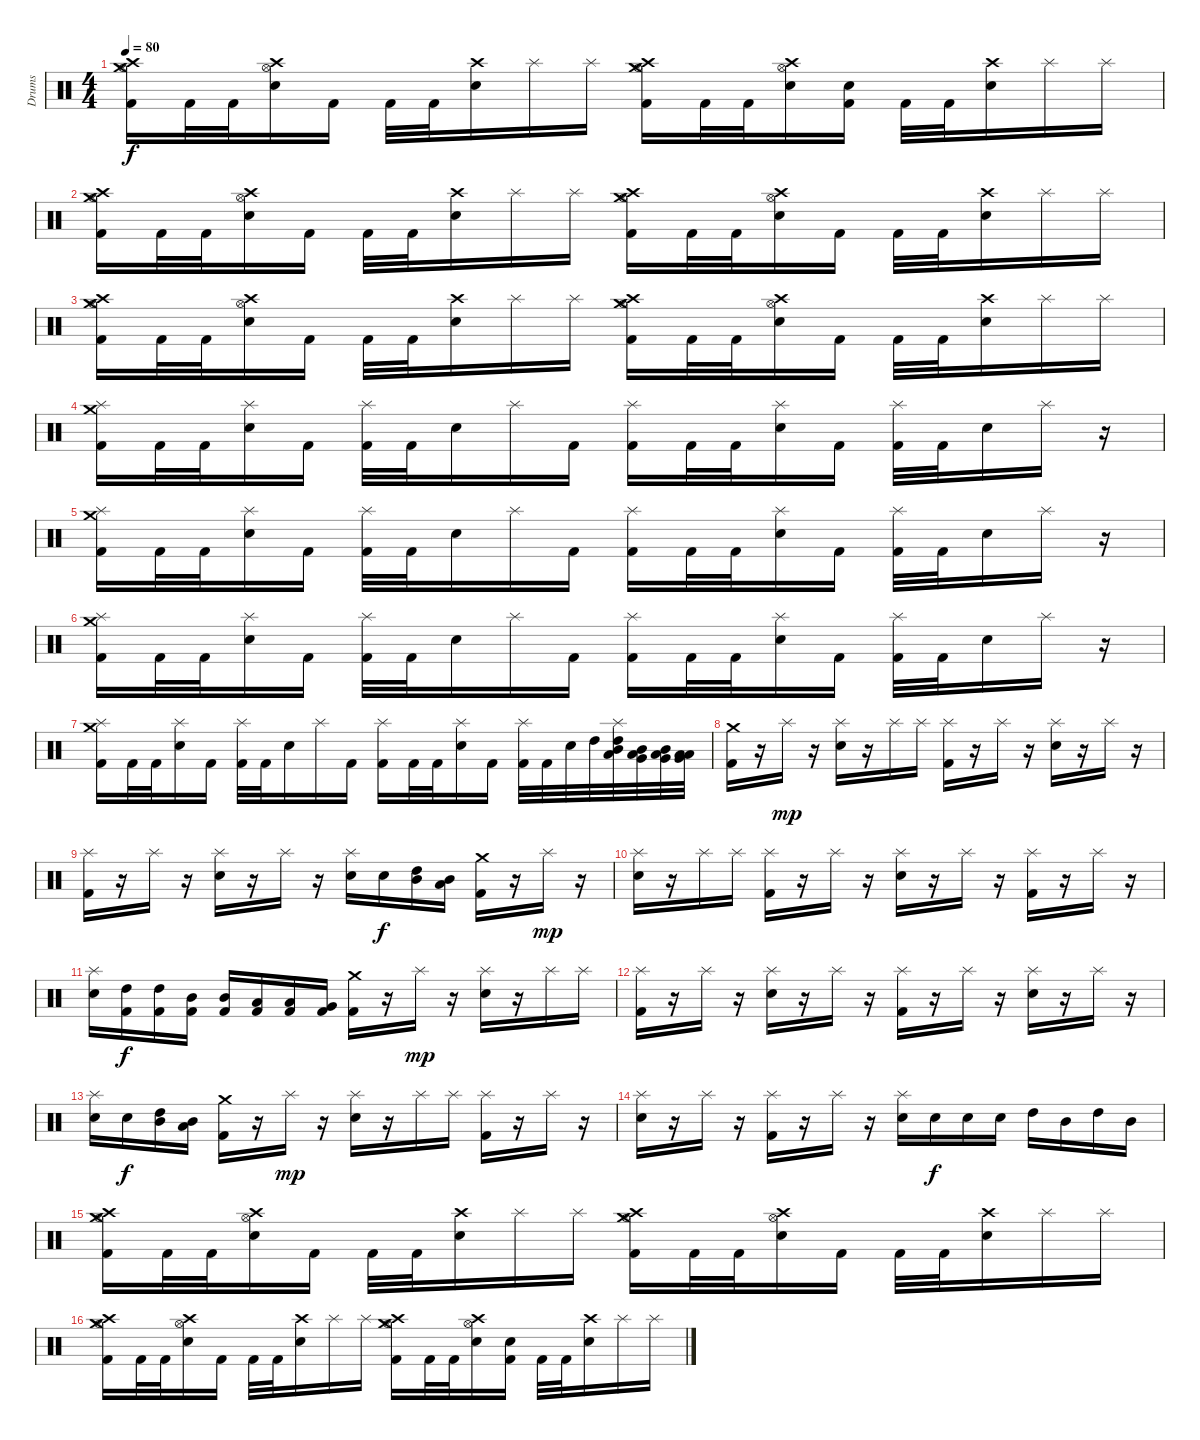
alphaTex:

\track ("Drums" "Drums") {instrument percussion}
\staff {score}
\articulation defaults
\ts (4 4)
\tempo 80
\clef neutral
\ks c
("Crash high (hit)" "Crash medium (hit)" "Hi-Hat (open)" "Kick (hit) 2").16{dy f} "Kick (hit) 2".32 "Kick (hit) 2".32 ("Crash high (hit)" "Electric Snare (hit)" "Hi-Hat (open)").16 "Kick (hit) 2".16 "Kick (hit) 2".32 "Kick (hit) 2".32 ("Crash high (hit)" "Electric Snare (hit)").16 "Splash (hit)".16 "Splash (hit)".16 ("Kick (hit) 2" "Crash high (hit)" "Crash medium (hit)" "Hi-Hat (open)").16 "Kick (hit) 2".32 "Kick (hit) 2".32 ("Hi-Hat (open)" "Crash high (hit)" "Electric Snare (hit)").16 ("Electric Snare (hit)" "Kick (hit) 2").16 "Kick (hit) 2".32 "Kick (hit) 2".32 ("Crash high (hit)" "Electric Snare (hit)").16 "Splash (hit)".16 "Splash (hit)".16 |
("Kick (hit) 2" "Hi-Hat (open)" "Crash high (hit)" "Crash medium (hit)").16 "Kick (hit) 2".32 "Kick (hit) 2".32 ("Crash high (hit)" "Hi-Hat (open)" "Electric Snare (hit)").16 "Kick (hit) 2".16 "Kick (hit) 2".32 "Kick (hit) 2".32 ("Electric Snare (hit)" "Crash high (hit)").16 "Splash (hit)".16 "Splash (hit)".16 ("Crash high (hit)" "Crash medium (hit)" "Hi-Hat (open)" "Kick (hit) 2").16 "Kick (hit) 2".32 "Kick (hit) 2".32 ("Electric Snare (hit)" "Crash high (hit)" "Hi-Hat (open)").16 "Kick (hit) 2".16 "Kick (hit) 2".32 "Kick (hit) 2".32 ("Electric Snare (hit)" "Crash high (hit)").16 "Splash (hit)".16 "Splash (hit)".16 |
("Hi-Hat (open)" "Crash medium (hit)" "Crash high (hit)" "Kick (hit) 2").16 "Kick (hit) 2".32 "Kick (hit) 2".32 ("Hi-Hat (open)" "Electric Snare (hit)" "Crash high (hit)").16 "Kick (hit) 2".16 "Kick (hit) 2".32 "Kick (hit) 2".32 ("Crash high (hit)" "Electric Snare (hit)").16 "Splash (hit)".16 "Splash (hit)".16 ("Crash medium (hit)" "Kick (hit) 2" "Hi-Hat (open)" "Crash high (hit)").16 "Kick (hit) 2".32 "Kick (hit) 2".32 ("Hi-Hat (open)" "Electric Snare (hit)" "Crash high (hit)").16 "Kick (hit) 2".16 "Kick (hit) 2".32 "Kick (hit) 2".32 ("Crash high (hit)" "Electric Snare (hit)").16 "Splash (hit)".16 "Splash (hit)".16 |
("Crash medium (hit)" "Splash (hit)" "Kick (hit) 2").16 "Kick (hit) 2".32 "Kick (hit) 2".32 ("Splash (hit)" "Electric Snare (hit)").16 "Kick (hit) 2".16 ("Splash (hit)" "Kick (hit) 2").32 "Kick (hit) 2".32 "Electric Snare (hit)".16 "Splash (hit)".16 "Kick (hit) 2".16 ("Splash (hit)" "Kick (hit) 2").16 "Kick (hit) 2".32 "Kick (hit) 2".32 ("Splash (hit)" "Electric Snare (hit)").16 "Kick (hit) 2".16 ("Splash (hit)" "Kick (hit) 2").32 "Kick (hit) 2".32 "Electric Snare (hit)".16 "Splash (hit)".16 r.16 |
("Crash medium (hit)" "Splash (hit)" "Kick (hit) 2").16 "Kick (hit) 2".32 "Kick (hit) 2".32 ("Splash (hit)" "Electric Snare (hit)").16 "Kick (hit) 2".16 ("Splash (hit)" "Kick (hit) 2").32 "Kick (hit) 2".32 "Electric Snare (hit)".16 "Splash (hit)".16 "Kick (hit) 2".16 ("Splash (hit)" "Kick (hit) 2").16 "Kick (hit) 2".32 "Kick (hit) 2".32 ("Splash (hit)" "Electric Snare (hit)").16 "Kick (hit) 2".16 ("Splash (hit)" "Kick (hit) 2").32 "Kick (hit) 2".32 "Electric Snare (hit)".16 "Splash (hit)".16 r.16 |
("Crash medium (hit)" "Splash (hit)" "Kick (hit) 2").16 "Kick (hit) 2".32 "Kick (hit) 2".32 ("Splash (hit)" "Electric Snare (hit)").16 "Kick (hit) 2".16 ("Splash (hit)" "Kick (hit) 2").32 "Kick (hit) 2".32 "Electric Snare (hit)".16 "Splash (hit)".16 "Kick (hit) 2".16 ("Splash (hit)" "Kick (hit) 2").16 "Kick (hit) 2".32 "Kick (hit) 2".32 ("Splash (hit)" "Electric Snare (hit)").16 "Kick (hit) 2".16 ("Splash (hit)" "Kick (hit) 2").32 "Kick (hit) 2".32 "Electric Snare (hit)".16 "Splash (hit)".16 r.16 |
("Crash medium (hit)" "Splash (hit)" "Kick (hit) 2").16 "Kick (hit) 2".32 "Kick (hit) 2".32 ("Splash (hit)" "Electric Snare (hit)").16 "Kick (hit) 2".16 ("Splash (hit)" "Kick (hit) 2").32 "Kick (hit) 2".32 "Electric Snare (hit)".16 "Splash (hit)".16 "Kick (hit) 2".16 ("Splash (hit)" "Kick (hit) 2").16 "Kick (hit) 2".32 "Kick (hit) 2".32 ("Splash (hit)" "Electric Snare (hit)").16 "Kick (hit) 2".16 ("Splash (hit)" "Kick (hit) 2").32 "Kick (hit) 2".32 "Electric Snare (hit)".32 "High Tom (hit)".32 ("Low Tom (hit)" "Mid Tom (hit)" "High Tom (hit)" "Splash (hit)").32 ("Very Low Tom (hit)" "Low Tom (hit)" "Mid Tom (hit)").32 ("Very Low Tom (hit)" "Low Tom (hit)" "Mid Tom (hit)").32 ("Very Low Tom (hit)" "Low Floor Tom (hit)" "Low Tom (hit)").32 |
("Crash medium (hit)" "Kick (hit) 2").16 r.16 "Splash (hit)".16{dy mp} r.16 ("Electric Snare (hit)" "Splash (hit)").16 r.16 "Splash (hit)".16 "Splash (hit)".16 ("Splash (hit)" "Kick (hit) 2").16 r.16 "Splash (hit)".16 r.16 ("Electric Snare (hit)" "Splash (hit)").16 r.16 "Splash (hit)".16 r.16 |
("Kick (hit) 2" "Splash (hit)").16 r.16 "Splash (hit)".16 r.16 ("Splash (hit)" "Electric Snare (hit)").16 r.16 "Splash (hit)".16 r.16 ("Electric Snare (hit)" "Splash (hit)").16 "Electric Snare (hit)".16{dy f} ("High Tom (hit)" "Mid Tom (hit)").16 ("Low Tom (hit)" "Mid Tom (hit)").16 ("Kick (hit) 2" "Crash medium (hit)").16 r.16 "Splash (hit)".16{dy mp} r.16 |
("Splash (hit)" "Electric Snare (hit)").16 r.16 "Splash (hit)".16 "Splash (hit)".16 ("Splash (hit)" "Kick (hit) 2").16 r.16 "Splash (hit)".16 r.16 ("Electric Snare (hit)" "Splash (hit)").16 r.16 "Splash (hit)".16 r.16 ("Splash (hit)" "Kick (hit) 2").16 r.16 "Splash (hit)".16 r.16 |
("Electric Snare (hit)" "Splash (hit)").16 ("High Tom (hit)" "Kick (hit) 2").16{dy f} ("Kick (hit) 2" "High Tom (hit)").16 ("Kick (hit) 2" "Mid Tom (hit)").16 ("Kick (hit) 2" "Mid Tom (hit)").16 ("Kick (hit) 2" "Low Tom (hit)").16 ("Kick (hit) 2" "Low Tom (hit)").16 ("Kick (hit) 2" "Very Low Tom (hit)").16 ("Kick (hit) 2" "Crash medium (hit)").16 r.16 "Splash (hit)".16{dy mp} r.16 ("Electric Snare (hit)" "Splash (hit)").16 r.16 "Splash (hit)".16 "Splash (hit)".16 |
("Kick (hit) 2" "Splash (hit)").16 r.16 "Splash (hit)".16 r.16 ("Electric Snare (hit)" "Splash (hit)").16 r.16 "Splash (hit)".16 r.16 ("Kick (hit) 2" "Splash (hit)").16 r.16 "Splash (hit)".16 r.16 ("Electric Snare (hit)" "Splash (hit)").16 r.16 "Splash (hit)".16 r.16 |
("Splash (hit)" "Electric Snare (hit)").16 "Electric Snare (hit)".16{dy f} ("Mid Tom (hit)" "High Tom (hit)").16 ("Mid Tom (hit)" "Low Tom (hit)").16 ("Kick (hit) 2" "Crash medium (hit)").16 r.16 "Splash (hit)".16{dy mp} r.16 ("Splash (hit)" "Electric Snare (hit)").16 r.16 "Splash (hit)".16 "Splash (hit)".16 ("Splash (hit)" "Kick (hit) 2").16 r.16 "Splash (hit)".16 r.16 |
("Splash (hit)" "Electric Snare (hit)").16 r.16 "Splash (hit)".16 r.16 ("Kick (hit) 2" "Splash (hit)").16 r.16 "Splash (hit)".16 r.16 ("Splash (hit)" "Electric Snare (hit)").16 "Electric Snare (hit)".16{dy f} "Electric Snare (hit)".16 "Electric Snare (hit)".16 "High Tom (hit)".16 "Mid Tom (hit)".16 "High Tom (hit)".16 "Mid Tom (hit)".16 |
("Hi-Hat (open)" "Crash high (hit)" "Crash medium (hit)" "Kick (hit) 2").16 "Kick (hit) 2".32 "Kick (hit) 2".32 ("Hi-Hat (open)" "Crash high (hit)" "Electric Snare (hit)").16 "Kick (hit) 2".16 "Kick (hit) 2".32 "Kick (hit) 2".32 ("Crash high (hit)" "Electric Snare (hit)").16 "Splash (hit)".16 "Splash (hit)".16 ("Hi-Hat (open)" "Crash high (hit)" "Crash medium (hit)" "Kick (hit) 2").16 "Kick (hit) 2".32 "Kick (hit) 2".32 ("Crash high (hit)" "Electric Snare (hit)" "Hi-Hat (open)").16 "Kick (hit) 2".16 "Kick (hit) 2".32 "Kick (hit) 2".32 ("Crash high (hit)" "Electric Snare (hit)").16 "Splash (hit)".16 "Splash (hit)".16 |
("Crash high (hit)" "Crash medium (hit)" "Hi-Hat (open)" "Kick (hit) 2").16 "Kick (hit) 2".32 "Kick (hit) 2".32 ("Crash high (hit)" "Electric Snare (hit)" "Hi-Hat (open)").16 "Kick (hit) 2".16 "Kick (hit) 2".32 "Kick (hit) 2".32 ("Crash high (hit)" "Electric Snare (hit)").16 "Splash (hit)".16 "Splash (hit)".16 ("Kick (hit) 2" "Crash high (hit)" "Crash medium (hit)" "Hi-Hat (open)").16 "Kick (hit) 2".32 "Kick (hit) 2".32 ("Hi-Hat (open)" "Crash high (hit)" "Electric Snare (hit)").16 ("Electric Snare (hit)" "Kick (hit) 2").16 "Kick (hit) 2".32 "Kick (hit) 2".32 ("Crash high (hit)" "Electric Snare (hit)").16 "Splash (hit)".16 "Splash (hit)".16
